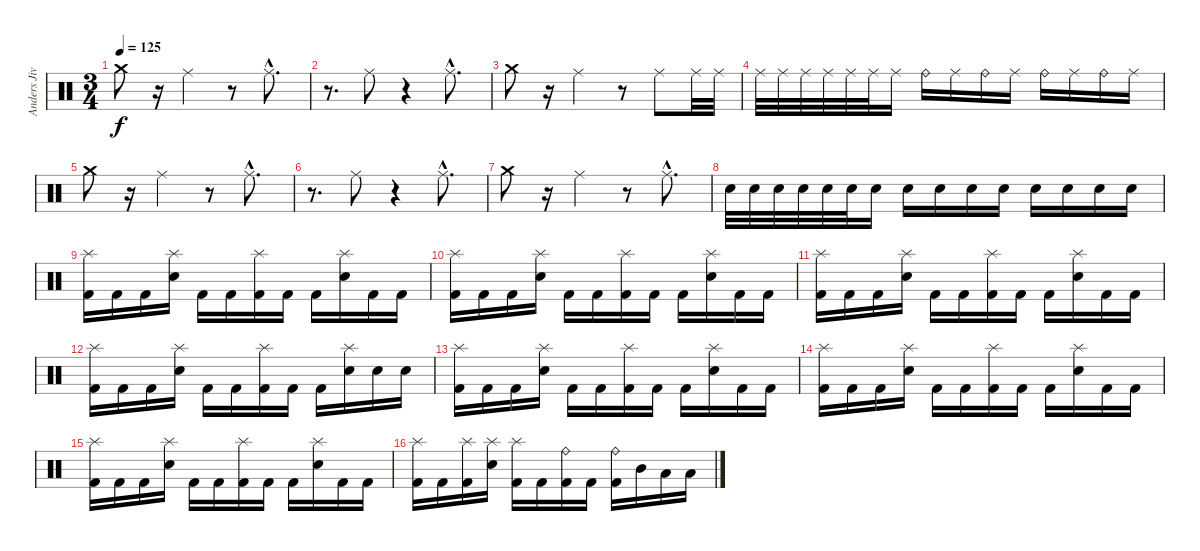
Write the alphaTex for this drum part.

\track ("Anders Jivarp" "Anders Jiv") {instrument percussion}
\staff {score}
\articulation defaults
\ts (3 4)
\tempo 125
\clef neutral
\ks c "Crash medium (hit)".8{dy f}
r.16 "Ride (middle)".4 r.8 "Ride (middle)"{hac}.8{d} |
r.8{d} "Ride (middle)".8 r.4 "Ride (middle)"{hac}.8{d} |
"Crash medium (hit)".8 r.16 "Ride (middle)".4 r.8 "Ride (middle)".8 "Ride (middle)".32 "Ride (middle)".32 |
"Ride (middle)".32 "Ride (middle)".32 "Ride (middle)".32 "Ride (middle)".32 "Ride (middle)".32 "Ride (middle)".32 "Ride (middle)".16 "Ride (bell)".16 "Ride (middle)".16 "Ride (bell)".16 "Ride (middle)".16 "Ride (bell)".16 "Ride (middle)".16 "Ride (bell)".16 "Ride (middle)".16 |
"Crash medium (hit)".8 r.16 "Ride (middle)".4 r.8 "Ride (middle)"{hac}.8{d} |
r.8{d} "Ride (middle)".8 r.4 "Ride (middle)"{hac}.8{d} |
"Crash medium (hit)".8 r.16 "Ride (middle)".4 r.8 "Ride (middle)"{hac}.8{d} |
"Electric Snare (hit)".32 "Electric Snare (hit)".32 "Electric Snare (hit)".32 "Electric Snare (hit)".32 "Electric Snare (hit)".32 "Electric Snare (hit)".32 "Electric Snare (hit)".16 "Electric Snare (hit)".16 "Electric Snare (hit)".16 "Electric Snare (hit)".16 "Electric Snare (hit)".16 "Electric Snare (hit)".16 "Electric Snare (hit)".16 "Electric Snare (hit)".16 "Electric Snare (hit)".16 |
("Splash (hit)" "Kick (hit) 2").16 "Kick (hit) 2".16 "Kick (hit) 2".16 ("Splash (hit)" "Electric Snare (hit)").16 "Kick (hit) 2".16 "Kick (hit) 2".16 ("Splash (hit)" "Kick (hit) 2").16 "Kick (hit) 2".16 "Kick (hit) 2".16 ("Splash (hit)" "Electric Snare (hit)").16 "Kick (hit) 2".16 "Kick (hit) 2".16 |
("Splash (hit)" "Kick (hit) 2").16 "Kick (hit) 2".16 "Kick (hit) 2".16 ("Splash (hit)" "Electric Snare (hit)").16 "Kick (hit) 2".16 "Kick (hit) 2".16 ("Splash (hit)" "Kick (hit) 2").16 "Kick (hit) 2".16 "Kick (hit) 2".16 ("Splash (hit)" "Electric Snare (hit)").16 "Kick (hit) 2".16 "Kick (hit) 2".16 |
("Splash (hit)" "Kick (hit) 2").16 "Kick (hit) 2".16 "Kick (hit) 2".16 ("Splash (hit)" "Electric Snare (hit)").16 "Kick (hit) 2".16 "Kick (hit) 2".16 ("Splash (hit)" "Kick (hit) 2").16 "Kick (hit) 2".16 "Kick (hit) 2".16 ("Splash (hit)" "Electric Snare (hit)").16 "Kick (hit) 2".16 "Kick (hit) 2".16 |
("Splash (hit)" "Kick (hit) 2").16 "Kick (hit) 2".16 "Kick (hit) 2".16 ("Splash (hit)" "Electric Snare (hit)").16 "Kick (hit) 2".16 "Kick (hit) 2".16 ("Splash (hit)" "Kick (hit) 2").16 "Kick (hit) 2".16 "Kick (hit) 2".16 ("Splash (hit)" "Electric Snare (hit)").16 "Electric Snare (hit)".16 "Electric Snare (hit)".16 |
("Splash (hit)" "Kick (hit) 2").16 "Kick (hit) 2".16 "Kick (hit) 2".16 ("Splash (hit)" "Electric Snare (hit)").16 "Kick (hit) 2".16 "Kick (hit) 2".16 ("Splash (hit)" "Kick (hit) 2").16 "Kick (hit) 2".16 "Kick (hit) 2".16 ("Splash (hit)" "Electric Snare (hit)").16 "Kick (hit) 2".16 "Kick (hit) 2".16 |
("Splash (hit)" "Kick (hit) 2").16 "Kick (hit) 2".16 "Kick (hit) 2".16 ("Splash (hit)" "Electric Snare (hit)").16 "Kick (hit) 2".16 "Kick (hit) 2".16 ("Splash (hit)" "Kick (hit) 2").16 "Kick (hit) 2".16 "Kick (hit) 2".16 ("Splash (hit)" "Electric Snare (hit)").16 "Kick (hit) 2".16 "Kick (hit) 2".16 |
("Splash (hit)" "Kick (hit) 2").16 "Kick (hit) 2".16 "Kick (hit) 2".16 ("Splash (hit)" "Electric Snare (hit)").16 "Kick (hit) 2".16 "Kick (hit) 2".16 ("Splash (hit)" "Kick (hit) 2").16 "Kick (hit) 2".16 "Kick (hit) 2".16 ("Splash (hit)" "Electric Snare (hit)").16 "Kick (hit) 2".16 "Kick (hit) 2".16 |
("Splash (hit)" "Kick (hit) 2").16 "Kick (hit) 2".16 ("Splash (hit)" "Kick (hit) 2").16 ("Splash (hit)" "Electric Snare (hit)").16 ("Splash (hit)" "Kick (hit) 2").16 "Kick (hit) 2".16 ("Ride (bell)" "Kick (hit) 2").16 "Kick (hit) 2".16 ("Ride (bell)" "Kick (hit) 2").16 "Mid Tom (hit)".16 "Low Tom (hit)".16 "Low Floor Tom (hit)".16
